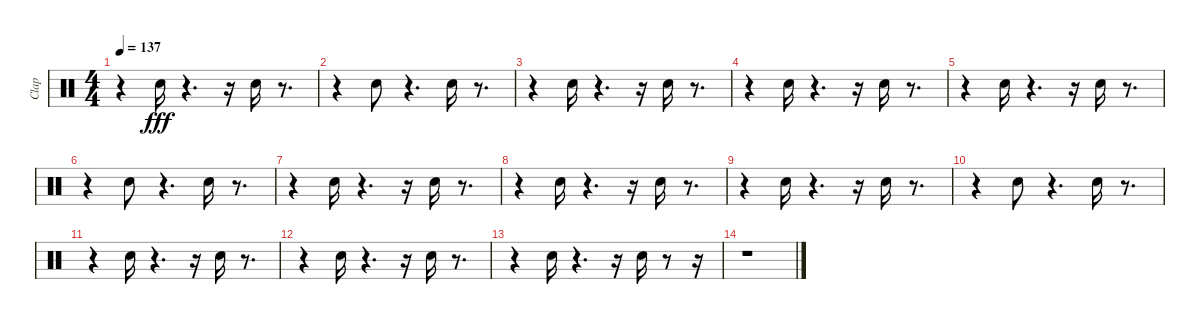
\track ("Clap" "Clap") {instrument percussion}
\staff {score}
\articulation defaults
\ts (4 4)
\tempo 137
\clef neutral
\ks c
r.4{dy fff} "Hand Clap (hit)".16 r.4{d} r.16 "Hand Clap (hit)".16 r.8{d} |
r.4 "Hand Clap (hit)".8 r.4{d} "Hand Clap (hit)".16 r.8{d} |
r.4 "Hand Clap (hit)".16 r.4{d} r.16 "Hand Clap (hit)".16 r.8{d} |
r.4 "Hand Clap (hit)".16 r.4{d} r.16 "Hand Clap (hit)".16 r.8{d} |
r.4 "Hand Clap (hit)".16 r.4{d} r.16 "Hand Clap (hit)".16 r.8{d} |
r.4 "Hand Clap (hit)".8 r.4{d} "Hand Clap (hit)".16 r.8{d} |
r.4 "Hand Clap (hit)".16 r.4{d} r.16 "Hand Clap (hit)".16 r.8{d} |
r.4 "Hand Clap (hit)".16 r.4{d} r.16 "Hand Clap (hit)".16 r.8{d} |
r.4 "Hand Clap (hit)".16 r.4{d} r.16 "Hand Clap (hit)".16 r.8{d} |
r.4 "Hand Clap (hit)".8 r.4{d} "Hand Clap (hit)".16 r.8{d} |
r.4 "Hand Clap (hit)".16 r.4{d} r.16 "Hand Clap (hit)".16 r.8{d} |
r.4 "Hand Clap (hit)".16 r.4{d} r.16 "Hand Clap (hit)".16 r.8{d} |
r.4 "Hand Clap (hit)".16 r.4{d} r.16 "Hand Clap (hit)".16 r.8 r.16 |
r.1
